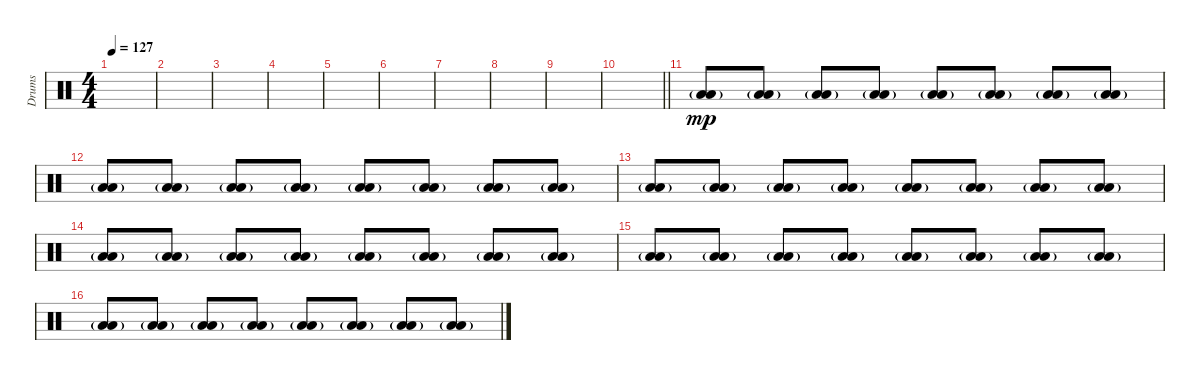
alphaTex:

\track ("Drums" "Drums") {instrument percussion}
\staff {score}
\articulation defaults
\ts (4 4)
\tempo 127
\clef neutral
\ks c
|
|
|
|
|
|
|
|
|
\barLineRight lightlight
|
\section ("" "")
("Low Tom (hit)" "Low Floor Tom (hit)"{g}).8{dy mp volume 16} ("Low Tom (hit)" "Low Floor Tom (hit)"{g}).8 ("Low Tom (hit)" "Low Floor Tom (hit)"{g}).8 ("Low Tom (hit)" "Low Floor Tom (hit)"{g}).8 ("Low Tom (hit)" "Low Floor Tom (hit)"{g}).8 ("Low Tom (hit)" "Low Floor Tom (hit)"{g}).8 ("Low Tom (hit)" "Low Floor Tom (hit)"{g}).8 ("Low Tom (hit)" "Low Floor Tom (hit)"{g}).8 |
("Low Tom (hit)" "Low Floor Tom (hit)"{g}).8 ("Low Tom (hit)" "Low Floor Tom (hit)"{g}).8 ("Low Tom (hit)" "Low Floor Tom (hit)"{g}).8 ("Low Tom (hit)" "Low Floor Tom (hit)"{g}).8 ("Low Tom (hit)" "Low Floor Tom (hit)"{g}).8 ("Low Tom (hit)" "Low Floor Tom (hit)"{g}).8 ("Low Tom (hit)" "Low Floor Tom (hit)"{g}).8 ("Low Tom (hit)" "Low Floor Tom (hit)"{g}).8 |
("Low Tom (hit)" "Low Floor Tom (hit)"{g}).8 ("Low Tom (hit)" "Low Floor Tom (hit)"{g}).8 ("Low Tom (hit)" "Low Floor Tom (hit)"{g}).8 ("Low Tom (hit)" "Low Floor Tom (hit)"{g}).8 ("Low Tom (hit)" "Low Floor Tom (hit)"{g}).8 ("Low Tom (hit)" "Low Floor Tom (hit)"{g}).8 ("Low Tom (hit)" "Low Floor Tom (hit)"{g}).8 ("Low Tom (hit)" "Low Floor Tom (hit)"{g}).8 |
("Low Tom (hit)" "Low Floor Tom (hit)"{g}).8 ("Low Tom (hit)" "Low Floor Tom (hit)"{g}).8 ("Low Tom (hit)" "Low Floor Tom (hit)"{g}).8 ("Low Tom (hit)" "Low Floor Tom (hit)"{g}).8 ("Low Tom (hit)" "Low Floor Tom (hit)"{g}).8 ("Low Tom (hit)" "Low Floor Tom (hit)"{g}).8 ("Low Tom (hit)" "Low Floor Tom (hit)"{g}).8 ("Low Tom (hit)" "Low Floor Tom (hit)"{g}).8 |
("Low Tom (hit)" "Low Floor Tom (hit)"{g}).8 ("Low Tom (hit)" "Low Floor Tom (hit)"{g}).8 ("Low Tom (hit)" "Low Floor Tom (hit)"{g}).8 ("Low Tom (hit)" "Low Floor Tom (hit)"{g}).8 ("Low Tom (hit)" "Low Floor Tom (hit)"{g}).8 ("Low Tom (hit)" "Low Floor Tom (hit)"{g}).8 ("Low Tom (hit)" "Low Floor Tom (hit)"{g}).8 ("Low Tom (hit)" "Low Floor Tom (hit)"{g}).8 |
("Low Tom (hit)" "Low Floor Tom (hit)"{g}).8 ("Low Tom (hit)" "Low Floor Tom (hit)"{g}).8 ("Low Tom (hit)" "Low Floor Tom (hit)"{g}).8 ("Low Tom (hit)" "Low Floor Tom (hit)"{g}).8 ("Low Tom (hit)" "Low Floor Tom (hit)"{g}).8 ("Low Tom (hit)" "Low Floor Tom (hit)"{g}).8 ("Low Tom (hit)" "Low Floor Tom (hit)"{g}).8 ("Low Tom (hit)" "Low Floor Tom (hit)"{g}).8
